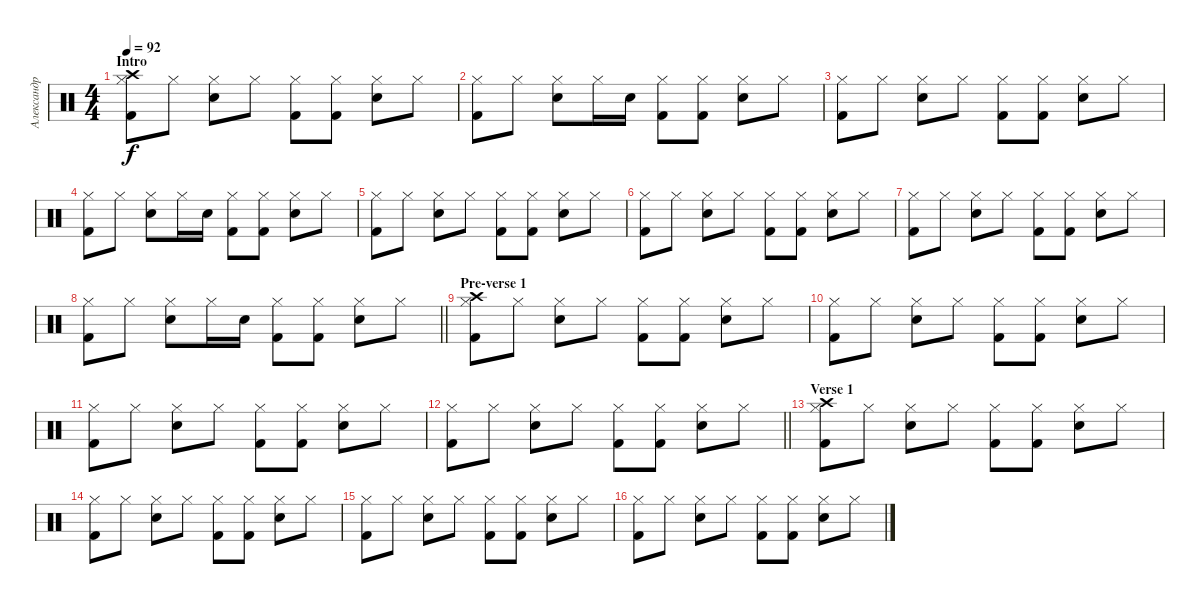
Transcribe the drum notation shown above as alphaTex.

\track ("Александр Барзилович" "Александр ") {instrument percussion}
\staff {score}
\articulation defaults
\ts (4 4)
\section ("" "Intro")
\tempo 92
\clef neutral
\ks c
("Kick (hit) 2" "Hi-Hat (closed)" "Crash high (hit)").8{dy f} "Hi-Hat (closed)".8 ("Electric Snare (hit)" "Hi-Hat (closed)").8 "Hi-Hat (closed)".8 ("Kick (hit) 2" "Hi-Hat (closed)").8 ("Kick (hit) 2" "Hi-Hat (closed)").8 ("Electric Snare (hit)" "Hi-Hat (closed)").8 "Hi-Hat (closed)".8 |
("Kick (hit) 2" "Hi-Hat (closed)").8 "Hi-Hat (closed)".8 ("Electric Snare (hit)" "Hi-Hat (closed)").8 "Hi-Hat (closed)".16 "Electric Snare (hit)".16 ("Kick (hit) 2" "Hi-Hat (closed)").8 ("Kick (hit) 2" "Hi-Hat (closed)").8 ("Electric Snare (hit)" "Hi-Hat (closed)").8 "Hi-Hat (closed)".8 |
("Kick (hit) 2" "Hi-Hat (closed)").8 "Hi-Hat (closed)".8 ("Electric Snare (hit)" "Hi-Hat (closed)").8 "Hi-Hat (closed)".8 ("Kick (hit) 2" "Hi-Hat (closed)").8 ("Kick (hit) 2" "Hi-Hat (closed)").8 ("Electric Snare (hit)" "Hi-Hat (closed)").8 "Hi-Hat (closed)".8 |
("Kick (hit) 2" "Hi-Hat (closed)").8 "Hi-Hat (closed)".8 ("Electric Snare (hit)" "Hi-Hat (closed)").8 "Hi-Hat (closed)".16 "Electric Snare (hit)".16 ("Kick (hit) 2" "Hi-Hat (closed)").8 ("Kick (hit) 2" "Hi-Hat (closed)").8 ("Electric Snare (hit)" "Hi-Hat (closed)").8 "Hi-Hat (closed)".8 |
("Kick (hit) 2" "Hi-Hat (closed)").8 "Hi-Hat (closed)".8 ("Electric Snare (hit)" "Hi-Hat (closed)").8 "Hi-Hat (closed)".8 ("Kick (hit) 2" "Hi-Hat (closed)").8 ("Kick (hit) 2" "Hi-Hat (closed)").8 ("Electric Snare (hit)" "Hi-Hat (closed)").8 "Hi-Hat (closed)".8 |
("Kick (hit) 2" "Hi-Hat (closed)").8 "Hi-Hat (closed)".8 ("Electric Snare (hit)" "Hi-Hat (closed)").8 "Hi-Hat (closed)".8 ("Kick (hit) 2" "Hi-Hat (closed)").8 ("Kick (hit) 2" "Hi-Hat (closed)").8 ("Electric Snare (hit)" "Hi-Hat (closed)").8 "Hi-Hat (closed)".8 |
("Kick (hit) 2" "Hi-Hat (closed)").8 "Hi-Hat (closed)".8 ("Electric Snare (hit)" "Hi-Hat (closed)").8 "Hi-Hat (closed)".8 ("Kick (hit) 2" "Hi-Hat (closed)").8 ("Kick (hit) 2" "Hi-Hat (closed)").8 ("Electric Snare (hit)" "Hi-Hat (closed)").8 "Hi-Hat (closed)".8 |
\barLineRight lightlight
("Kick (hit) 2" "Hi-Hat (closed)").8 "Hi-Hat (closed)".8 ("Electric Snare (hit)" "Hi-Hat (closed)").8 "Hi-Hat (closed)".16 "Electric Snare (hit)".16 ("Kick (hit) 2" "Hi-Hat (closed)").8 ("Kick (hit) 2" "Hi-Hat (closed)").8 ("Electric Snare (hit)" "Hi-Hat (closed)").8 "Hi-Hat (closed)".8 |
\section ("" "Pre-verse 1")
("Kick (hit) 2" "Hi-Hat (closed)" "Crash high (hit)").8 "Hi-Hat (closed)".8 ("Electric Snare (hit)" "Hi-Hat (closed)").8 "Hi-Hat (closed)".8 ("Kick (hit) 2" "Hi-Hat (closed)").8 ("Kick (hit) 2" "Hi-Hat (closed)").8 ("Electric Snare (hit)" "Hi-Hat (closed)").8 "Hi-Hat (closed)".8 |
("Kick (hit) 2" "Hi-Hat (closed)").8 "Hi-Hat (closed)".8 ("Electric Snare (hit)" "Hi-Hat (closed)").8 "Hi-Hat (closed)".8 ("Kick (hit) 2" "Hi-Hat (closed)").8 ("Kick (hit) 2" "Hi-Hat (closed)").8 ("Electric Snare (hit)" "Hi-Hat (closed)").8 "Hi-Hat (closed)".8 |
("Kick (hit) 2" "Hi-Hat (closed)").8 "Hi-Hat (closed)".8 ("Electric Snare (hit)" "Hi-Hat (closed)").8 "Hi-Hat (closed)".8 ("Kick (hit) 2" "Hi-Hat (closed)").8 ("Kick (hit) 2" "Hi-Hat (closed)").8 ("Electric Snare (hit)" "Hi-Hat (closed)").8 "Hi-Hat (closed)".8 |
\barLineRight lightlight
("Kick (hit) 2" "Hi-Hat (closed)").8 "Hi-Hat (closed)".8 ("Electric Snare (hit)" "Hi-Hat (closed)").8 "Hi-Hat (closed)".8 ("Kick (hit) 2" "Hi-Hat (closed)").8 ("Kick (hit) 2" "Hi-Hat (closed)").8 ("Electric Snare (hit)" "Hi-Hat (closed)").8 "Hi-Hat (closed)".8 |
\section ("" "Verse 1")
("Kick (hit) 2" "Hi-Hat (closed)" "Crash high (hit)").8 "Hi-Hat (closed)".8 ("Electric Snare (hit)" "Hi-Hat (closed)").8 "Hi-Hat (closed)".8 ("Kick (hit) 2" "Hi-Hat (closed)").8 ("Kick (hit) 2" "Hi-Hat (closed)").8 ("Electric Snare (hit)" "Hi-Hat (closed)").8 "Hi-Hat (closed)".8 |
("Kick (hit) 2" "Hi-Hat (closed)").8 "Hi-Hat (closed)".8 ("Electric Snare (hit)" "Hi-Hat (closed)").8 "Hi-Hat (closed)".8 ("Kick (hit) 2" "Hi-Hat (closed)").8 ("Kick (hit) 2" "Hi-Hat (closed)").8 ("Electric Snare (hit)" "Hi-Hat (closed)").8 "Hi-Hat (closed)".8 |
("Kick (hit) 2" "Hi-Hat (closed)").8 "Hi-Hat (closed)".8 ("Electric Snare (hit)" "Hi-Hat (closed)").8 "Hi-Hat (closed)".8 ("Kick (hit) 2" "Hi-Hat (closed)").8 ("Kick (hit) 2" "Hi-Hat (closed)").8 ("Electric Snare (hit)" "Hi-Hat (closed)").8 "Hi-Hat (closed)".8 |
("Kick (hit) 2" "Hi-Hat (closed)").8 "Hi-Hat (closed)".8 ("Electric Snare (hit)" "Hi-Hat (closed)").8 "Hi-Hat (closed)".8 ("Kick (hit) 2" "Hi-Hat (closed)").8 ("Kick (hit) 2" "Hi-Hat (closed)").8 ("Electric Snare (hit)" "Hi-Hat (closed)").8 "Hi-Hat (closed)".8
